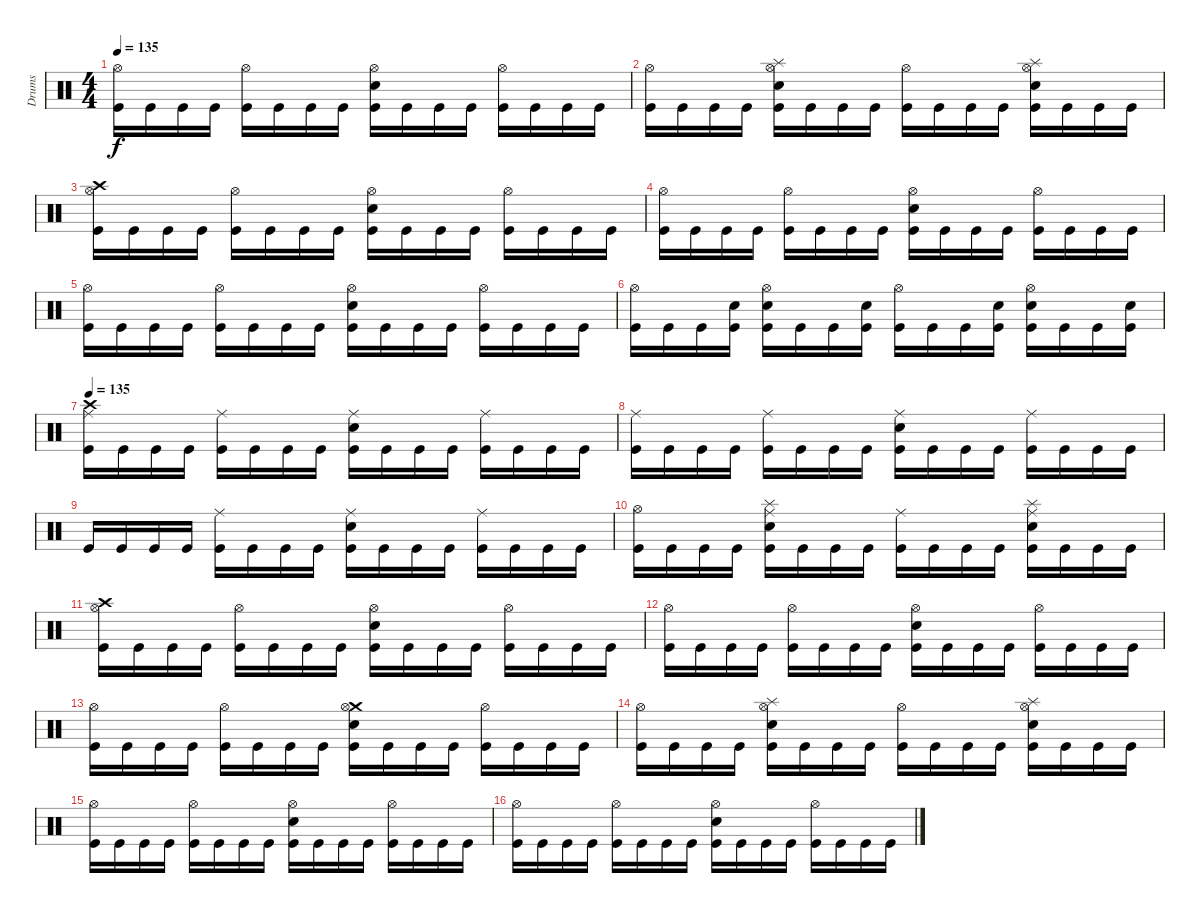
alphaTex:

\track ("Drums" "Drums") {instrument percussion}
\staff {score}
\articulation defaults
\ts (4 4)
\tempo 135
\clef neutral
\ks c
("Hi-Hat (open)" "Kick (hit)").16{dy f} "Kick (hit)".16 "Kick (hit)".16 "Kick (hit)".16 ("Hi-Hat (open)" "Kick (hit)").16 "Kick (hit)".16 "Kick (hit)".16 "Kick (hit)".16 ("Hi-Hat (open)" "Electric Snare (hit)" "Kick (hit)").16 "Kick (hit)".16 "Kick (hit)".16 "Kick (hit)".16 ("Hi-Hat (open)" "Kick (hit)").16 "Kick (hit)".16 "Kick (hit)".16 "Kick (hit)".16 |
("Hi-Hat (open)" "Kick (hit)").16 "Kick (hit)".16 "Kick (hit)".16 "Kick (hit)".16 ("Splash (hit)" "Hi-Hat (open)" "Electric Snare (hit)" "Kick (hit)").16 "Kick (hit)".16 "Kick (hit)".16 "Kick (hit)".16 ("Hi-Hat (open)" "Kick (hit)").16 "Kick (hit)".16 "Kick (hit)".16 "Kick (hit)".16 ("Splash (hit)" "Hi-Hat (open)" "Electric Snare (hit)" "Kick (hit)").16 "Kick (hit)".16 "Kick (hit)".16 "Kick (hit)".16 |
("Crash high (hit)" "Hi-Hat (open)" "Kick (hit)").16 "Kick (hit)".16 "Kick (hit)".16 "Kick (hit)".16 ("Hi-Hat (open)" "Kick (hit)").16 "Kick (hit)".16 "Kick (hit)".16 "Kick (hit)".16 ("Hi-Hat (open)" "Electric Snare (hit)" "Kick (hit)").16 "Kick (hit)".16 "Kick (hit)".16 "Kick (hit)".16 ("Hi-Hat (open)" "Kick (hit)").16 "Kick (hit)".16 "Kick (hit)".16 "Kick (hit)".16 |
("Hi-Hat (open)" "Kick (hit)").16 "Kick (hit)".16 "Kick (hit)".16 "Kick (hit)".16 ("Hi-Hat (open)" "Kick (hit)").16 "Kick (hit)".16 "Kick (hit)".16 "Kick (hit)".16 ("Hi-Hat (open)" "Electric Snare (hit)" "Kick (hit)").16 "Kick (hit)".16 "Kick (hit)".16 "Kick (hit)".16 ("Hi-Hat (open)" "Kick (hit)").16 "Kick (hit)".16 "Kick (hit)".16 "Kick (hit)".16 |
("Hi-Hat (open)" "Kick (hit)").16 "Kick (hit)".16 "Kick (hit)".16 "Kick (hit)".16 ("Hi-Hat (open)" "Kick (hit)").16 "Kick (hit)".16 "Kick (hit)".16 "Kick (hit)".16 ("Hi-Hat (open)" "Electric Snare (hit)" "Kick (hit)").16 "Kick (hit)".16 "Kick (hit)".16 "Kick (hit)".16 ("Hi-Hat (open)" "Kick (hit)").16 "Kick (hit)".16 "Kick (hit)".16 "Kick (hit)".16 |
("Hi-Hat (open)" "Kick (hit)").16 "Kick (hit)".16 "Kick (hit)".16 ("Electric Snare (hit)" "Kick (hit)").16 ("Hi-Hat (open)" "Electric Snare (hit)" "Kick (hit)").16 "Kick (hit)".16 "Kick (hit)".16 ("Electric Snare (hit)" "Kick (hit)").16 ("Hi-Hat (open)" "Kick (hit)").16 "Kick (hit)".16 "Kick (hit)".16 ("Electric Snare (hit)" "Kick (hit)").16 ("Hi-Hat (open)" "Electric Snare (hit)" "Kick (hit)").16 "Kick (hit)".16 "Kick (hit)".16 ("Electric Snare (hit)" "Kick (hit)").16 |
\tempo 135
("Crash high (hit)" "Ride (middle)" "Kick (hit)").16 "Kick (hit)".16 "Kick (hit)".16 "Kick (hit)".16 ("Ride (middle)" "Kick (hit)").16 "Kick (hit)".16 "Kick (hit)".16 "Kick (hit)".16 ("Ride (middle)" "Electric Snare (hit)" "Kick (hit)").16 "Kick (hit)".16 "Kick (hit)".16 "Kick (hit)".16 ("Ride (middle)" "Kick (hit)").16 "Kick (hit)".16 "Kick (hit)".16 "Kick (hit)".16 |
("Ride (middle)" "Kick (hit)").16 "Kick (hit)".16 "Kick (hit)".16 "Kick (hit)".16 ("Ride (middle)" "Kick (hit)").16 "Kick (hit)".16 "Kick (hit)".16 "Kick (hit)".16 ("Ride (middle)" "Electric Snare (hit)" "Kick (hit)").16 "Kick (hit)".16 "Kick (hit)".16 "Kick (hit)".16 ("Ride (middle)" "Kick (hit)").16 "Kick (hit)".16 "Kick (hit)".16 "Kick (hit)".16 |
"Kick (hit)".16 "Kick (hit)".16 "Kick (hit)".16 "Kick (hit)".16 ("Ride (middle)" "Kick (hit)").16 "Kick (hit)".16 "Kick (hit)".16 "Kick (hit)".16 ("Ride (middle)" "Electric Snare (hit)" "Kick (hit)").16 "Kick (hit)".16 "Kick (hit)".16 "Kick (hit)".16 ("Ride (middle)" "Kick (hit)").16 "Kick (hit)".16 "Kick (hit)".16 "Kick (hit)".16 |
("Hi-Hat (open)" "Kick (hit)").16 "Kick (hit)".16 "Kick (hit)".16 "Kick (hit)".16 ("Splash (hit)" "Ride (middle)" "Electric Snare (hit)" "Kick (hit)").16 "Kick (hit)".16 "Kick (hit)".16 "Kick (hit)".16 ("Ride (middle)" "Kick (hit)").16 "Kick (hit)".16 "Kick (hit)".16 "Kick (hit)".16 ("Splash (hit)" "Ride (middle)" "Electric Snare (hit)" "Kick (hit)").16 "Kick (hit)".16 "Kick (hit)".16 "Kick (hit)".16 |
("Crash high (hit)" "Hi-Hat (open)" "Kick (hit)").16 "Kick (hit)".16 "Kick (hit)".16 "Kick (hit)".16 ("Hi-Hat (open)" "Kick (hit)").16 "Kick (hit)".16 "Kick (hit)".16 "Kick (hit)".16 ("Hi-Hat (open)" "Electric Snare (hit)" "Kick (hit)").16 "Kick (hit)".16 "Kick (hit)".16 "Kick (hit)".16 ("Hi-Hat (open)" "Kick (hit)").16 "Kick (hit)".16 "Kick (hit)".16 "Kick (hit)".16 |
("Hi-Hat (open)" "Kick (hit)").16 "Kick (hit)".16 "Kick (hit)".16 "Kick (hit)".16 ("Hi-Hat (open)" "Kick (hit)").16 "Kick (hit)".16 "Kick (hit)".16 "Kick (hit)".16 ("Hi-Hat (open)" "Electric Snare (hit)" "Kick (hit)").16 "Kick (hit)".16 "Kick (hit)".16 "Kick (hit)".16 ("Hi-Hat (open)" "Kick (hit)").16 "Kick (hit)".16 "Kick (hit)".16 "Kick (hit)".16 |
("Hi-Hat (open)" "Kick (hit)").16 "Kick (hit)".16 "Kick (hit)".16 "Kick (hit)".16 ("Hi-Hat (open)" "Kick (hit)").16 "Kick (hit)".16 "Kick (hit)".16 "Kick (hit)".16 ("Crash medium (hit)" "Hi-Hat (open)" "Electric Snare (hit)" "Kick (hit)").16 "Kick (hit)".16 "Kick (hit)".16 "Kick (hit)".16 ("Hi-Hat (open)" "Kick (hit)").16 "Kick (hit)".16 "Kick (hit)".16 "Kick (hit)".16 |
("Hi-Hat (open)" "Kick (hit)").16 "Kick (hit)".16 "Kick (hit)".16 "Kick (hit)".16 ("Splash (hit)" "Hi-Hat (open)" "Electric Snare (hit)" "Kick (hit)").16 "Kick (hit)".16 "Kick (hit)".16 "Kick (hit)".16 ("Hi-Hat (open)" "Kick (hit)").16 "Kick (hit)".16 "Kick (hit)".16 "Kick (hit)".16 ("Splash (hit)" "Hi-Hat (open)" "Electric Snare (hit)" "Kick (hit)").16 "Kick (hit)".16 "Kick (hit)".16 "Kick (hit)".16 |
("Hi-Hat (open)" "Kick (hit)").16 "Kick (hit)".16 "Kick (hit)".16 "Kick (hit)".16 ("Hi-Hat (open)" "Kick (hit)").16 "Kick (hit)".16 "Kick (hit)".16 "Kick (hit)".16 ("Hi-Hat (open)" "Electric Snare (hit)" "Kick (hit)").16 "Kick (hit)".16 "Kick (hit)".16 "Kick (hit)".16 ("Hi-Hat (open)" "Kick (hit)").16 "Kick (hit)".16 "Kick (hit)".16 "Kick (hit)".16 |
("Hi-Hat (open)" "Kick (hit)").16 "Kick (hit)".16 "Kick (hit)".16 "Kick (hit)".16 ("Hi-Hat (open)" "Kick (hit)").16 "Kick (hit)".16 "Kick (hit)".16 "Kick (hit)".16 ("Hi-Hat (open)" "Electric Snare (hit)" "Kick (hit)").16 "Kick (hit)".16 "Kick (hit)".16 "Kick (hit)".16 ("Hi-Hat (open)" "Kick (hit)").16 "Kick (hit)".16 "Kick (hit)".16 "Kick (hit)".16
